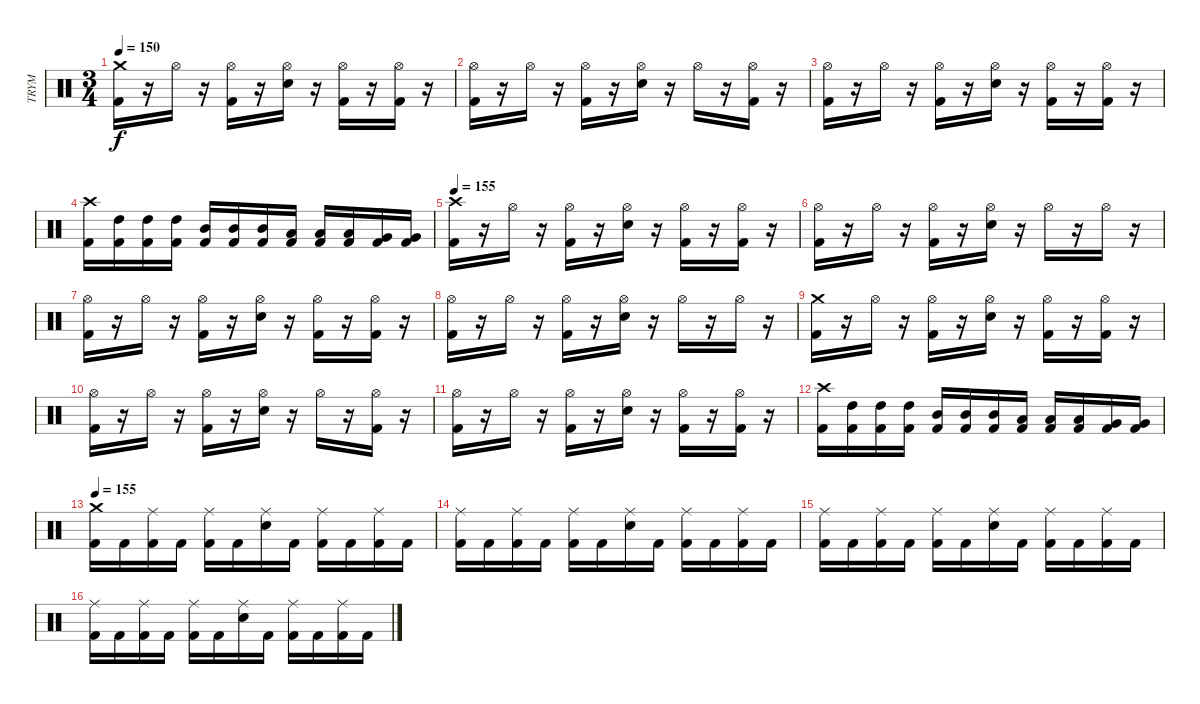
\track ("TRYM" "TRYM") {instrument percussion}
\staff {score}
\articulation defaults
\ts (3 4)
\tempo 150
\clef neutral
\ks c
("Kick (hit) 2" "Crash medium (hit)").16{dy f} r.16 "Hi-Hat (open)".16 r.16 ("Kick (hit) 2" "Hi-Hat (open)").16 r.16 ("Hi-Hat (open)" "Electric Snare (hit)").16 r.16 ("Kick (hit) 2" "Hi-Hat (open)").16 r.16 ("Kick (hit) 2" "Hi-Hat (open)").16 r.16 |
("Kick (hit) 2" "Hi-Hat (open)").16 r.16 "Hi-Hat (open)".16 r.16 ("Kick (hit) 2" "Hi-Hat (open)").16 r.16 ("Hi-Hat (open)" "Electric Snare (hit)").16 r.16 "Hi-Hat (open)".16 r.16 ("Kick (hit) 2" "Hi-Hat (open)").16 r.16 |
("Kick (hit) 2" "Hi-Hat (open)").16 r.16 "Hi-Hat (open)".16 r.16 ("Kick (hit) 2" "Hi-Hat (open)").16 r.16 ("Hi-Hat (open)" "Electric Snare (hit)").16 r.16 ("Kick (hit) 2" "Hi-Hat (open)").16 r.16 ("Kick (hit) 2" "Hi-Hat (open)").16 r.16 |
("Kick (hit) 2" "Crash high (hit)").16 ("Kick (hit) 2" "High Tom (hit)").16 ("Kick (hit) 2" "High Tom (hit)").16 ("Kick (hit) 2" "High Tom (hit)").16 ("Kick (hit) 2" "Mid Tom (hit)").16 ("Kick (hit) 2" "Mid Tom (hit)").16 ("Kick (hit) 2" "Mid Tom (hit)").16 ("Kick (hit) 2" "Low Tom (hit)").16 ("Kick (hit) 2" "Low Tom (hit)").16 ("Kick (hit) 2" "Low Tom (hit)").16 ("Kick (hit) 2" "Very Low Tom (hit)").16 ("Kick (hit) 2" "Very Low Tom (hit)").16 |
\tempo 155
("Kick (hit) 2" "Crash high (hit)").16 r.16 "Hi-Hat (open)".16 r.16 ("Kick (hit) 2" "Hi-Hat (open)").16 r.16 ("Hi-Hat (open)" "Electric Snare (hit)").16 r.16 ("Kick (hit) 2" "Hi-Hat (open)").16 r.16 ("Kick (hit) 2" "Hi-Hat (open)").16 r.16 |
("Kick (hit) 2" "Hi-Hat (open)").16 r.16 "Hi-Hat (open)".16 r.16 ("Kick (hit) 2" "Hi-Hat (open)").16 r.16 ("Hi-Hat (open)" "Electric Snare (hit)").16 r.16 "Hi-Hat (open)".16 r.16 "Hi-Hat (open)".16 r.16 |
("Kick (hit) 2" "Hi-Hat (open)").16 r.16 "Hi-Hat (open)".16 r.16 ("Kick (hit) 2" "Hi-Hat (open)").16 r.16 ("Hi-Hat (open)" "Electric Snare (hit)").16 r.16 ("Kick (hit) 2" "Hi-Hat (open)").16 r.16 ("Kick (hit) 2" "Hi-Hat (open)").16 r.16 |
("Kick (hit) 2" "Hi-Hat (open)").16 r.16 "Hi-Hat (open)".16 r.16 ("Kick (hit) 2" "Hi-Hat (open)").16 r.16 ("Hi-Hat (open)" "Electric Snare (hit)").16 r.16 "Hi-Hat (open)".16 r.16 "Hi-Hat (open)".16 r.16 |
("Kick (hit) 2" "Crash medium (hit)").16 r.16 "Hi-Hat (open)".16 r.16 ("Kick (hit) 2" "Hi-Hat (open)").16 r.16 ("Hi-Hat (open)" "Electric Snare (hit)").16 r.16 ("Kick (hit) 2" "Hi-Hat (open)").16 r.16 ("Kick (hit) 2" "Hi-Hat (open)").16 r.16 |
("Kick (hit) 2" "Hi-Hat (open)").16 r.16 "Hi-Hat (open)".16 r.16 ("Kick (hit) 2" "Hi-Hat (open)").16 r.16 ("Hi-Hat (open)" "Electric Snare (hit)").16 r.16 "Hi-Hat (open)".16 r.16 ("Kick (hit) 2" "Hi-Hat (open)").16 r.16 |
("Kick (hit) 2" "Hi-Hat (open)").16 r.16 "Hi-Hat (open)".16 r.16 ("Kick (hit) 2" "Hi-Hat (open)").16 r.16 ("Hi-Hat (open)" "Electric Snare (hit)").16 r.16 ("Kick (hit) 2" "Hi-Hat (open)").16 r.16 ("Kick (hit) 2" "Hi-Hat (open)").16 r.16 |
("Kick (hit) 2" "Crash high (hit)").16 ("Kick (hit) 2" "High Tom (hit)").16 ("Kick (hit) 2" "High Tom (hit)").16 ("Kick (hit) 2" "High Tom (hit)").16 ("Kick (hit) 2" "Mid Tom (hit)").16 ("Kick (hit) 2" "Mid Tom (hit)").16 ("Kick (hit) 2" "Mid Tom (hit)").16 ("Kick (hit) 2" "Low Tom (hit)").16 ("Kick (hit) 2" "Low Tom (hit)").16 ("Kick (hit) 2" "Low Tom (hit)").16 ("Kick (hit) 2" "Very Low Tom (hit)").16 ("Kick (hit) 2" "Very Low Tom (hit)").16 |
\tempo 155
("Kick (hit) 2" "Crash medium (hit)").16 "Kick (hit) 2".16 ("Kick (hit) 2" "Ride (middle)").16 "Kick (hit) 2".16 ("Kick (hit) 2" "Ride (middle)").16 "Kick (hit) 2".16 ("Ride (middle)" "Electric Snare (hit)").16 "Kick (hit) 2".16 ("Kick (hit) 2" "Ride (middle)").16 "Kick (hit) 2".16 ("Kick (hit) 2" "Ride (middle)").16 "Kick (hit) 2".16 |
("Kick (hit) 2" "Ride (middle)").16 "Kick (hit) 2".16 ("Kick (hit) 2" "Ride (middle)").16 "Kick (hit) 2".16 ("Kick (hit) 2" "Ride (middle)").16 "Kick (hit) 2".16 ("Ride (middle)" "Electric Snare (hit)").16 "Kick (hit) 2".16 ("Kick (hit) 2" "Ride (middle)").16 "Kick (hit) 2".16 ("Kick (hit) 2" "Ride (middle)").16 "Kick (hit) 2".16 |
("Kick (hit) 2" "Ride (middle)").16 "Kick (hit) 2".16 ("Kick (hit) 2" "Ride (middle)").16 "Kick (hit) 2".16 ("Kick (hit) 2" "Ride (middle)").16 "Kick (hit) 2".16 ("Ride (middle)" "Electric Snare (hit)").16 "Kick (hit) 2".16 ("Kick (hit) 2" "Ride (middle)").16 "Kick (hit) 2".16 ("Kick (hit) 2" "Ride (middle)").16 "Kick (hit) 2".16 |
("Kick (hit) 2" "Ride (middle)").16 "Kick (hit) 2".16 ("Kick (hit) 2" "Ride (middle)").16 "Kick (hit) 2".16 ("Kick (hit) 2" "Ride (middle)").16 "Kick (hit) 2".16 ("Ride (middle)" "Electric Snare (hit)").16 "Kick (hit) 2".16 ("Kick (hit) 2" "Ride (middle)").16 "Kick (hit) 2".16 ("Kick (hit) 2" "Ride (middle)").16 "Kick (hit) 2".16
